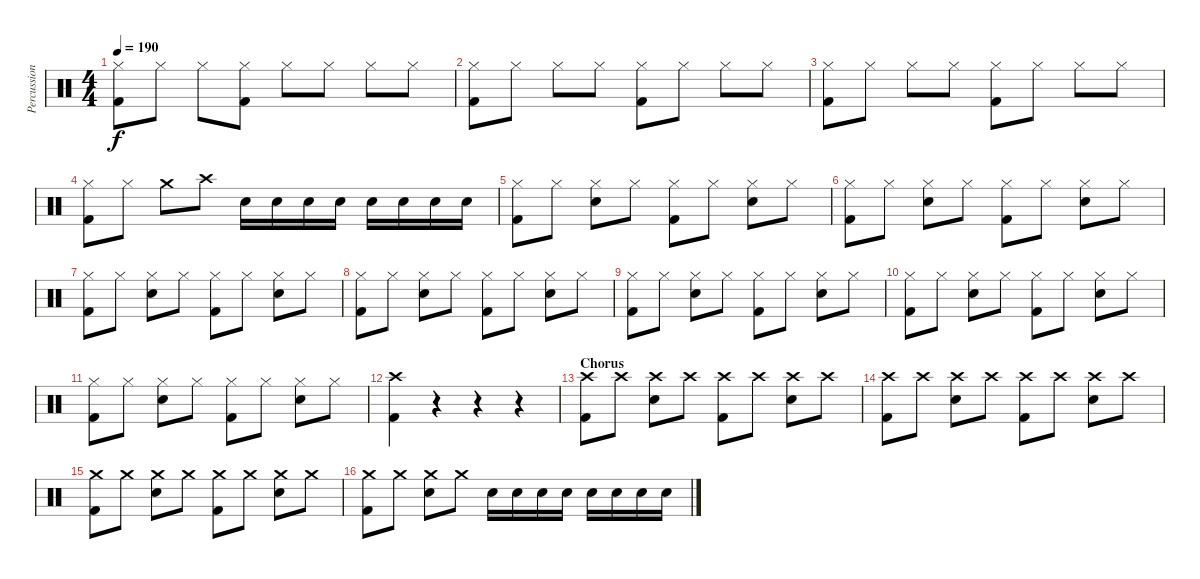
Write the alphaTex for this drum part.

\track ("Percussion" "Percussion") {instrument percussion}
\staff {score}
\articulation defaults
\ts (4 4)
\tempo 190
\clef neutral
\ks c
("Kick (hit) 2" "Hi-Hat (closed)").8{dy f} "Hi-Hat (closed)".8 "Hi-Hat (closed)".8 ("Kick (hit) 2" "Hi-Hat (closed)").8 "Hi-Hat (closed)".8 "Hi-Hat (closed)".8 "Hi-Hat (closed)".8 "Hi-Hat (closed)".8 |
("Kick (hit) 2" "Hi-Hat (closed)").8 "Hi-Hat (closed)".8 "Hi-Hat (closed)".8 "Hi-Hat (closed)".8 ("Kick (hit) 2" "Hi-Hat (closed)").8 "Hi-Hat (closed)".8 "Hi-Hat (closed)".8 "Hi-Hat (closed)".8 |
("Kick (hit) 2" "Hi-Hat (closed)").8 "Hi-Hat (closed)".8 "Hi-Hat (closed)".8 "Hi-Hat (closed)".8 ("Kick (hit) 2" "Hi-Hat (closed)").8 "Hi-Hat (closed)".8 "Hi-Hat (closed)".8 "Hi-Hat (closed)".8 |
("Kick (hit) 2" "Hi-Hat (closed)").8 "Hi-Hat (closed)".8 "Crash medium (hit)".8 "Crash high (hit)".8 "Electric Snare (hit)".16 "Electric Snare (hit)".16 "Electric Snare (hit)".16 "Electric Snare (hit)".16 "Electric Snare (hit)".16 "Electric Snare (hit)".16 "Electric Snare (hit)".16 "Electric Snare (hit)".16 |
("Hi-Hat (closed)" "Kick (hit) 2").8 "Hi-Hat (closed)".8 ("Hi-Hat (closed)" "Electric Snare (hit)").8 "Hi-Hat (closed)".8 ("Hi-Hat (closed)" "Kick (hit) 2").8 "Hi-Hat (closed)".8 ("Hi-Hat (closed)" "Electric Snare (hit)").8 "Hi-Hat (closed)".8 |
("Hi-Hat (closed)" "Kick (hit) 2").8 "Hi-Hat (closed)".8 ("Hi-Hat (closed)" "Electric Snare (hit)").8 "Hi-Hat (closed)".8 ("Hi-Hat (closed)" "Kick (hit) 2").8 "Hi-Hat (closed)".8 ("Hi-Hat (closed)" "Electric Snare (hit)").8 "Hi-Hat (closed)".8 |
("Hi-Hat (closed)" "Kick (hit) 2").8 "Hi-Hat (closed)".8 ("Hi-Hat (closed)" "Electric Snare (hit)").8 "Hi-Hat (closed)".8 ("Hi-Hat (closed)" "Kick (hit) 2").8 "Hi-Hat (closed)".8 ("Hi-Hat (closed)" "Electric Snare (hit)").8 "Hi-Hat (closed)".8 |
("Hi-Hat (closed)" "Kick (hit) 2").8 "Hi-Hat (closed)".8 ("Hi-Hat (closed)" "Electric Snare (hit)").8 "Hi-Hat (closed)".8 ("Hi-Hat (closed)" "Kick (hit) 2").8 "Hi-Hat (closed)".8 ("Hi-Hat (closed)" "Electric Snare (hit)").8 "Hi-Hat (closed)".8 |
("Hi-Hat (closed)" "Kick (hit) 2").8 "Hi-Hat (closed)".8 ("Hi-Hat (closed)" "Electric Snare (hit)").8 "Hi-Hat (closed)".8 ("Hi-Hat (closed)" "Kick (hit) 2").8 "Hi-Hat (closed)".8 ("Hi-Hat (closed)" "Electric Snare (hit)").8 "Hi-Hat (closed)".8 |
("Hi-Hat (closed)" "Kick (hit) 2").8 "Hi-Hat (closed)".8 ("Hi-Hat (closed)" "Electric Snare (hit)").8 "Hi-Hat (closed)".8 ("Hi-Hat (closed)" "Kick (hit) 2").8 "Hi-Hat (closed)".8 ("Hi-Hat (closed)" "Electric Snare (hit)").8 "Hi-Hat (closed)".8 |
("Hi-Hat (closed)" "Kick (hit) 2").8 "Hi-Hat (closed)".8 ("Hi-Hat (closed)" "Electric Snare (hit)").8 "Hi-Hat (closed)".8 ("Hi-Hat (closed)" "Kick (hit) 2").8 "Hi-Hat (closed)".8 ("Hi-Hat (closed)" "Electric Snare (hit)").8 "Hi-Hat (closed)".8 |
("Crash high (hit)" "Kick (hit) 2").4 r.4 r.4 r.4 |
\section ("" "Chorus")
("Crash high (hit)" "Kick (hit) 2").8 "Crash high (hit)".8 ("Crash high (hit)" "Electric Snare (hit)").8 "Crash high (hit)".8 ("Crash high (hit)" "Kick (hit) 2").8 "Crash high (hit)".8 ("Crash high (hit)" "Electric Snare (hit)").8 "Crash high (hit)".8 |
("Crash high (hit)" "Kick (hit) 2").8 "Crash high (hit)".8 ("Crash high (hit)" "Electric Snare (hit)").8 "Crash high (hit)".8 ("Crash high (hit)" "Kick (hit) 2").8 "Crash high (hit)".8 ("Crash high (hit)" "Electric Snare (hit)").8 "Crash high (hit)".8 |
("Crash medium (hit)" "Kick (hit) 2").8 "Crash medium (hit)".8 ("Crash medium (hit)" "Electric Snare (hit)").8 "Crash medium (hit)".8 ("Crash medium (hit)" "Kick (hit) 2").8 "Crash medium (hit)".8 ("Crash medium (hit)" "Electric Snare (hit)").8 "Crash medium (hit)".8 |
("Crash medium (hit)" "Kick (hit) 2").8 "Crash medium (hit)".8 ("Crash medium (hit)" "Electric Snare (hit)").8 "Crash medium (hit)".8 "Electric Snare (hit)".16 "Electric Snare (hit)".16 "Electric Snare (hit)".16 "Electric Snare (hit)".16 "Electric Snare (hit)".16 "Electric Snare (hit)".16 "Electric Snare (hit)".16 "Electric Snare (hit)".16
